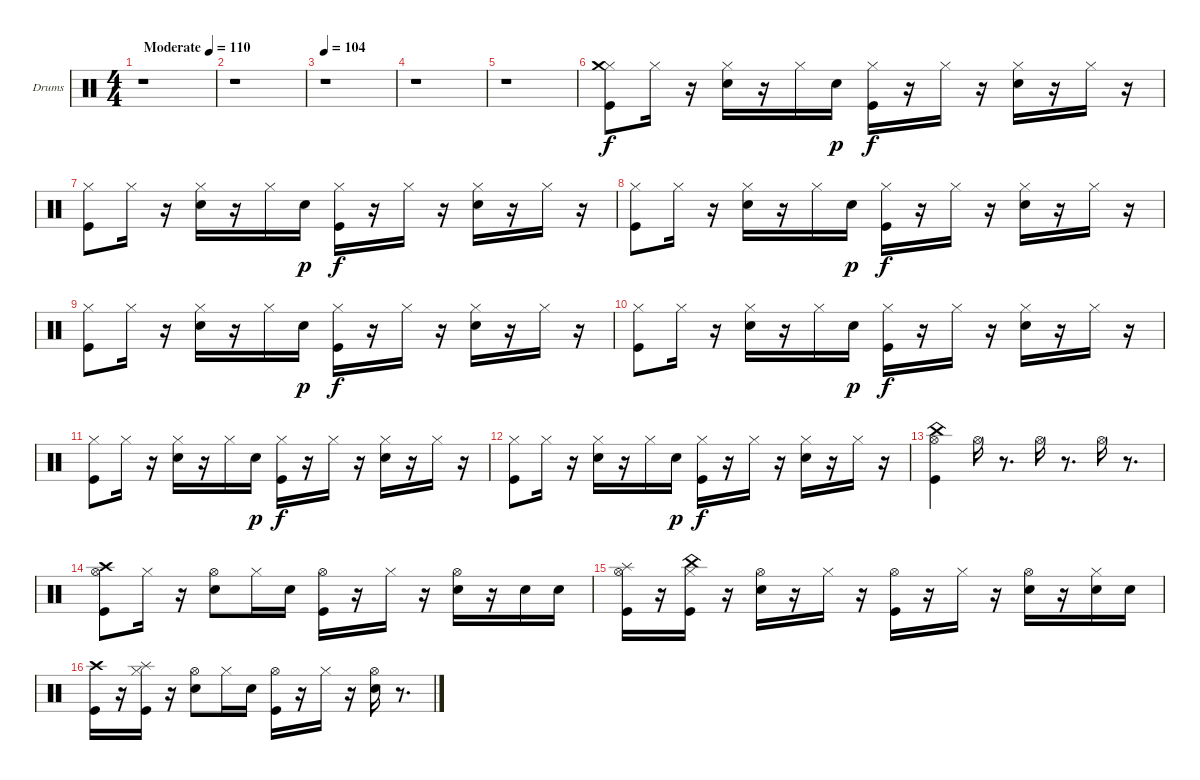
\bracketExtendMode groupsimilarinstruments
\firstSystemTrackNameOrientation horizontal
\otherSystemsTrackNameOrientation horizontal
\track ("Нюта" "Drums") {instrument percussion}
\staff {score}
\articulation defaults
\ts (4 4)
\beaming (8 2 2 2 2)
\tempo (110 "Moderate")
\clef neutral
\ks c
r.1{dy f} |
r.1 |
\tempo 104
r.1 |
r.1 |
r.1 |
("Hi-Hat (closed)" "Crash medium (hit)" "Kick (hit)").8 "Hi-Hat (closed)".16 r.16 ("Hi-Hat (closed)" "Snare (hit) 2").16 r.16 "Hi-Hat (closed)".16 "Snare (hit) 2".16{dy p} ("Hi-Hat (closed)" "Kick (hit)").16{dy f} r.16 "Hi-Hat (closed)".16 r.16 ("Hi-Hat (closed)" "Snare (hit) 2").16 r.16 "Hi-Hat (closed)".16 r.16 |
("Hi-Hat (closed)" "Kick (hit)").8 "Hi-Hat (closed)".16 r.16 ("Hi-Hat (closed)" "Snare (hit) 2").16 r.16 "Hi-Hat (closed)".16 "Snare (hit) 2".16{dy p} ("Hi-Hat (closed)" "Kick (hit)").16{dy f} r.16 "Hi-Hat (closed)".16 r.16 ("Hi-Hat (closed)" "Snare (hit) 2").16 r.16 "Hi-Hat (closed)".16 r.16 |
("Hi-Hat (closed)" "Kick (hit)").8 "Hi-Hat (closed)".16 r.16 ("Hi-Hat (closed)" "Snare (hit) 2").16 r.16 "Hi-Hat (closed)".16 "Snare (hit) 2".16{dy p} ("Hi-Hat (closed)" "Kick (hit)").16{dy f} r.16 "Hi-Hat (closed)".16 r.16 ("Hi-Hat (closed)" "Snare (hit) 2").16 r.16 "Hi-Hat (closed)".16 r.16 |
("Hi-Hat (closed)" "Kick (hit)").8 "Hi-Hat (closed)".16 r.16 ("Hi-Hat (closed)" "Snare (hit) 2").16 r.16 "Hi-Hat (closed)".16 "Snare (hit) 2".16{dy p} ("Hi-Hat (closed)" "Kick (hit)").16{dy f} r.16 "Hi-Hat (closed)".16 r.16 ("Hi-Hat (closed)" "Snare (hit) 2").16 r.16 "Hi-Hat (closed)".16 r.16 |
("Hi-Hat (closed)" "Kick (hit)").8 "Hi-Hat (closed)".16 r.16 ("Hi-Hat (closed)" "Snare (hit) 2").16 r.16 "Hi-Hat (closed)".16 "Snare (hit) 2".16{dy p} ("Hi-Hat (closed)" "Kick (hit)").16{dy f} r.16 "Hi-Hat (closed)".16 r.16 ("Hi-Hat (closed)" "Snare (hit) 2").16 r.16 "Hi-Hat (closed)".16 r.16 |
("Hi-Hat (closed)" "Kick (hit)").8 "Hi-Hat (closed)".16 r.16 ("Hi-Hat (closed)" "Snare (hit) 2").16 r.16 "Hi-Hat (closed)".16 "Snare (hit) 2".16{dy p} ("Hi-Hat (closed)" "Kick (hit)").16{dy f} r.16 "Hi-Hat (closed)".16 r.16 ("Hi-Hat (closed)" "Snare (hit) 2").16 r.16 "Hi-Hat (closed)".16 r.16 |
("Hi-Hat (closed)" "Kick (hit)").8 "Hi-Hat (closed)".16 r.16 ("Hi-Hat (closed)" "Snare (hit) 2").16 r.16 "Hi-Hat (closed)".16 "Snare (hit) 2".16{dy p} ("Hi-Hat (closed)" "Kick (hit)").16{dy f} r.16 "Hi-Hat (closed)".16 r.16 ("Hi-Hat (closed)" "Snare (hit) 2").16 r.16 "Hi-Hat (closed)".16 r.16 |
("China (hit)" "Hi-Hat (open)" "Kick (hit)").4 "Hi-Hat (open)".16 r.8{d} "Hi-Hat (open)".16 r.8{d} "Hi-Hat (open)".16 r.8{d} |
("Hi-Hat (open)" "Crash high (hit)" "Kick (hit)").8 "Hi-Hat (closed)".16 r.16 ("Hi-Hat (open)" "Snare (hit) 2").8 "Hi-Hat (closed)".16 "Snare (hit) 2".16 ("Hi-Hat (open)" "Kick (hit)").16 r.16 "Hi-Hat (closed)".16 r.16 ("Hi-Hat (open)" "Snare (hit) 2").16 r.16 "Snare (hit) 2".16 "Snare (hit) 2".16 |
("Splash (hit)" "Hi-Hat (open)" "Kick (hit)").16 r.16 ("Kick (hit)" "China (hit)" "Hi-Hat (closed)").16 r.16 ("Snare (hit) 2" "Hi-Hat (open)").16 r.16 "Hi-Hat (closed)".16 r.16 ("Kick (hit)" "Hi-Hat (open)").16 r.16 "Hi-Hat (closed)".16 r.16 ("Snare (hit) 2" "Hi-Hat (open)").16 r.16 ("Snare (hit) 2" "Hi-Hat (closed)").16 "Snare (hit) 2".16 |
("Kick (hit)" "Crash high (hit)").16 r.16 ("Kick (hit)" "Splash (hit)" "Hi-Hat (closed)").16 r.16 ("Hi-Hat (open)" "Snare (hit) 2").8 "Hi-Hat (closed)".16 "Snare (hit) 2".16 ("Hi-Hat (open)" "Kick (hit)").16 r.16 "Hi-Hat (closed)".16 r.16 ("Hi-Hat (open)" "Snare (hit) 2").16 r.8{d}
